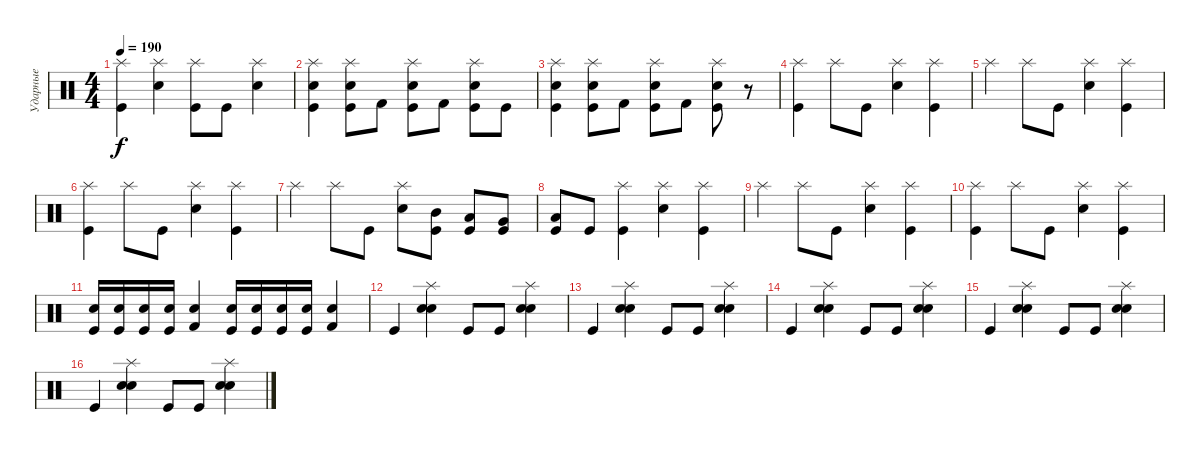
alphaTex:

\track ("Ударные" "Ударные") {instrument percussion}
\staff {score}
\articulation defaults
\ts (4 4)
\tempo 190
\clef neutral
\ks c
("Splash (hit)" "Kick (hit)").4{dy f} ("Splash (hit)" "Electric Snare (hit)").4 ("Splash (hit)" "Kick (hit)").8 "Kick (hit)".8 ("Splash (hit)" "Electric Snare (hit)").4 |
("Splash (hit)" "Electric Snare (hit)" "Kick (hit)").4 ("Splash (hit)" "Electric Snare (hit)" "Kick (hit)").8 "Kick (hit) 2".8 ("Splash (hit)" "Electric Snare (hit)" "Kick (hit)").8 "Kick (hit) 2".8 ("Splash (hit)" "Electric Snare (hit)" "Kick (hit)").8 "Kick (hit)".8 |
("Splash (hit)" "Electric Snare (hit)" "Kick (hit)").4 ("Splash (hit)" "Electric Snare (hit)" "Kick (hit)").8 "Kick (hit) 2".8 ("Splash (hit)" "Electric Snare (hit)" "Kick (hit)").8 "Kick (hit) 2".8 ("Splash (hit)" "Electric Snare (hit)" "Kick (hit)").8 r.8 |
("Splash (hit)" "Kick (hit)").4 "Splash (hit)".8 "Kick (hit)".8 ("Splash (hit)" "Electric Snare (hit)").4 ("Splash (hit)" "Kick (hit)").4 |
"Splash (hit)".4 "Splash (hit)".8 "Kick (hit)".8 ("Splash (hit)" "Electric Snare (hit)").4 ("Splash (hit)" "Kick (hit)").4 |
("Splash (hit)" "Kick (hit)").4 "Splash (hit)".8 "Kick (hit)".8 ("Splash (hit)" "Electric Snare (hit)").4 ("Splash (hit)" "Kick (hit)").4 |
"Splash (hit)".4 "Splash (hit)".8 "Kick (hit)".8 ("Splash (hit)" "Electric Snare (hit)").8 ("Mid Tom (hit)" "Kick (hit)").8 ("Low Tom (hit)" "Kick (hit)").8 ("Very Low Tom (hit)" "Kick (hit)").8 |
("Low Floor Tom (hit)" "Kick (hit)").8 "Kick (hit)".8 ("Splash (hit)" "Kick (hit)").4 ("Splash (hit)" "Electric Snare (hit)").4 ("Splash (hit)" "Kick (hit)").4 |
"Splash (hit)".4 "Splash (hit)".8 "Kick (hit)".8 ("Splash (hit)" "Electric Snare (hit)").4 ("Splash (hit)" "Kick (hit)").4 |
("Splash (hit)" "Kick (hit)").4 "Splash (hit)".8 "Kick (hit)".8 ("Splash (hit)" "Electric Snare (hit)").4 ("Splash (hit)" "Kick (hit)").4 |
("Electric Snare (hit)" "Kick (hit)").16 ("Electric Snare (hit)" "Kick (hit)").16 ("Electric Snare (hit)" "Kick (hit)").16 ("Electric Snare (hit)" "Kick (hit)").16 ("Electric Snare (hit)" "Kick (hit) 2").4 ("Electric Snare (hit)" "Kick (hit)").16 ("Electric Snare (hit)" "Kick (hit)").16 ("Electric Snare (hit)" "Kick (hit)").16 ("Electric Snare (hit)" "Kick (hit)").16 ("Electric Snare (hit)" "Kick (hit) 2").4 |
"Kick (hit)".4 ("Splash (hit)" "Snare (hit) 2" "Electric Snare (hit)").4 "Kick (hit)".8 "Kick (hit)".8 ("Splash (hit)" "Snare (hit) 2" "Electric Snare (hit)").4 |
"Kick (hit)".4 ("Splash (hit)" "Snare (hit) 2" "Electric Snare (hit)").4 "Kick (hit)".8 "Kick (hit)".8 ("Splash (hit)" "Snare (hit) 2" "Electric Snare (hit)").4 |
"Kick (hit)".4 ("Splash (hit)" "Snare (hit) 2" "Electric Snare (hit)").4 "Kick (hit)".8 "Kick (hit)".8 ("Splash (hit)" "Snare (hit) 2" "Electric Snare (hit)").4 |
"Kick (hit)".4 ("Splash (hit)" "Snare (hit) 2" "Electric Snare (hit)").4 "Kick (hit)".8 "Kick (hit)".8 ("Splash (hit)" "Snare (hit) 2" "Electric Snare (hit)").4 |
"Kick (hit)".4 ("Splash (hit)" "Snare (hit) 2" "Electric Snare (hit)").4 "Kick (hit)".8 "Kick (hit)".8 ("Splash (hit)" "Snare (hit) 2" "Electric Snare (hit)").4
